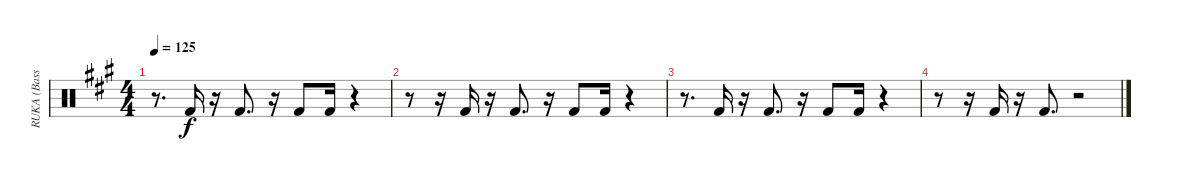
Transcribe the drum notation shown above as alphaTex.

\track ("RUKA (Bass Drum)" "RUKA (Bass") {instrument percussion}
\staff {score}
\articulation defaults
\ts (4 4)
\tempo 125
\clef neutral
\ks a
r.8{d dy f} "Kick (hit) 2".16 r.16 "Kick (hit) 2".8{d} r.16 "Kick (hit) 2".8 "Kick (hit) 2".16 r.4 |
r.8 r.16 "Kick (hit) 2".16 r.16 "Kick (hit) 2".8{d} r.16 "Kick (hit) 2".8 "Kick (hit) 2".16 r.4 |
r.8{d} "Kick (hit) 2".16 r.16 "Kick (hit) 2".8{d} r.16 "Kick (hit) 2".8 "Kick (hit) 2".16 r.4 |
r.8 r.16 "Kick (hit) 2".16 r.16 "Kick (hit) 2".8{d} r.2
